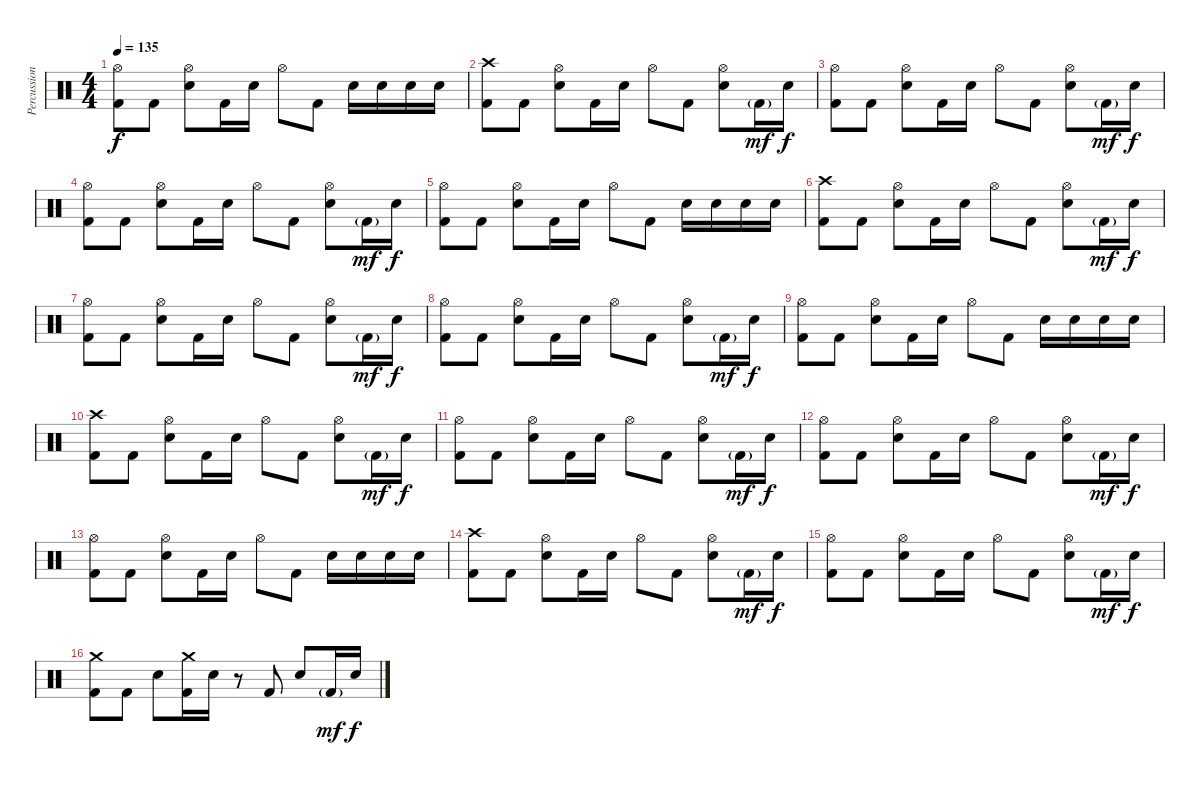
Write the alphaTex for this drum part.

\track ("Percussions" "Percussion") {instrument percussion}
\staff {score}
\articulation defaults
\ts (4 4)
\tempo 135
\clef neutral
\ks c
("Hi-Hat (open)" "Kick (hit) 2").8{dy f} "Kick (hit) 2".8 ("Hi-Hat (open)" "Snare (hit) 2").8 "Kick (hit) 2".16 "Snare (hit) 2".16 "Hi-Hat (open)".8 "Kick (hit) 2".8 "Snare (hit) 2".16 "Snare (hit) 2".16 "Snare (hit) 2".16 "Snare (hit) 2".16 |
("Crash high (hit)" "Kick (hit) 2").8 "Kick (hit) 2".8 ("Hi-Hat (open)" "Snare (hit) 2").8 "Kick (hit) 2".16 "Snare (hit) 2".16 "Hi-Hat (open)".8 "Kick (hit) 2".8 ("Hi-Hat (open)" "Snare (hit) 2").8 "Kick (hit) 2"{g}.16{dy mf} "Snare (hit) 2".16{dy f} |
("Hi-Hat (open)" "Kick (hit) 2").8 "Kick (hit) 2".8 ("Hi-Hat (open)" "Snare (hit) 2").8 "Kick (hit) 2".16 "Snare (hit) 2".16 "Hi-Hat (open)".8 "Kick (hit) 2".8 ("Hi-Hat (open)" "Snare (hit) 2").8 "Kick (hit) 2"{g}.16{dy mf} "Snare (hit) 2".16{dy f} |
("Hi-Hat (open)" "Kick (hit) 2").8 "Kick (hit) 2".8 ("Hi-Hat (open)" "Snare (hit) 2").8 "Kick (hit) 2".16 "Snare (hit) 2".16 "Hi-Hat (open)".8 "Kick (hit) 2".8 ("Hi-Hat (open)" "Snare (hit) 2").8 "Kick (hit) 2"{g}.16{dy mf} "Snare (hit) 2".16{dy f} |
("Hi-Hat (open)" "Kick (hit) 2").8 "Kick (hit) 2".8 ("Hi-Hat (open)" "Snare (hit) 2").8 "Kick (hit) 2".16 "Snare (hit) 2".16 "Hi-Hat (open)".8 "Kick (hit) 2".8 "Snare (hit) 2".16 "Snare (hit) 2".16 "Snare (hit) 2".16 "Snare (hit) 2".16 |
("Crash high (hit)" "Kick (hit) 2").8 "Kick (hit) 2".8 ("Hi-Hat (open)" "Snare (hit) 2").8 "Kick (hit) 2".16 "Snare (hit) 2".16 "Hi-Hat (open)".8 "Kick (hit) 2".8 ("Hi-Hat (open)" "Snare (hit) 2").8 "Kick (hit) 2"{g}.16{dy mf} "Snare (hit) 2".16{dy f} |
("Hi-Hat (open)" "Kick (hit) 2").8 "Kick (hit) 2".8 ("Hi-Hat (open)" "Snare (hit) 2").8 "Kick (hit) 2".16 "Snare (hit) 2".16 "Hi-Hat (open)".8 "Kick (hit) 2".8 ("Hi-Hat (open)" "Snare (hit) 2").8 "Kick (hit) 2"{g}.16{dy mf} "Snare (hit) 2".16{dy f} |
("Hi-Hat (open)" "Kick (hit) 2").8 "Kick (hit) 2".8 ("Hi-Hat (open)" "Snare (hit) 2").8 "Kick (hit) 2".16 "Snare (hit) 2".16 "Hi-Hat (open)".8 "Kick (hit) 2".8 ("Hi-Hat (open)" "Snare (hit) 2").8 "Kick (hit) 2"{g}.16{dy mf} "Snare (hit) 2".16{dy f} |
("Hi-Hat (open)" "Kick (hit) 2").8 "Kick (hit) 2".8 ("Hi-Hat (open)" "Snare (hit) 2").8 "Kick (hit) 2".16 "Snare (hit) 2".16 "Hi-Hat (open)".8 "Kick (hit) 2".8 "Snare (hit) 2".16 "Snare (hit) 2".16 "Snare (hit) 2".16 "Snare (hit) 2".16 |
("Crash high (hit)" "Kick (hit) 2").8 "Kick (hit) 2".8 ("Hi-Hat (open)" "Snare (hit) 2").8 "Kick (hit) 2".16 "Snare (hit) 2".16 "Hi-Hat (open)".8 "Kick (hit) 2".8 ("Hi-Hat (open)" "Snare (hit) 2").8 "Kick (hit) 2"{g}.16{dy mf} "Snare (hit) 2".16{dy f} |
("Hi-Hat (open)" "Kick (hit) 2").8 "Kick (hit) 2".8 ("Hi-Hat (open)" "Snare (hit) 2").8 "Kick (hit) 2".16 "Snare (hit) 2".16 "Hi-Hat (open)".8 "Kick (hit) 2".8 ("Hi-Hat (open)" "Snare (hit) 2").8 "Kick (hit) 2"{g}.16{dy mf} "Snare (hit) 2".16{dy f} |
("Hi-Hat (open)" "Kick (hit) 2").8 "Kick (hit) 2".8 ("Hi-Hat (open)" "Snare (hit) 2").8 "Kick (hit) 2".16 "Snare (hit) 2".16 "Hi-Hat (open)".8 "Kick (hit) 2".8 ("Hi-Hat (open)" "Snare (hit) 2").8 "Kick (hit) 2"{g}.16{dy mf} "Snare (hit) 2".16{dy f} |
("Hi-Hat (open)" "Kick (hit) 2").8 "Kick (hit) 2".8 ("Hi-Hat (open)" "Snare (hit) 2").8 "Kick (hit) 2".16 "Snare (hit) 2".16 "Hi-Hat (open)".8 "Kick (hit) 2".8 "Snare (hit) 2".16 "Snare (hit) 2".16 "Snare (hit) 2".16 "Snare (hit) 2".16 |
("Crash high (hit)" "Kick (hit) 2").8 "Kick (hit) 2".8 ("Hi-Hat (open)" "Snare (hit) 2").8 "Kick (hit) 2".16 "Snare (hit) 2".16 "Hi-Hat (open)".8 "Kick (hit) 2".8 ("Hi-Hat (open)" "Snare (hit) 2").8 "Kick (hit) 2"{g}.16{dy mf} "Snare (hit) 2".16{dy f} |
("Hi-Hat (open)" "Kick (hit) 2").8 "Kick (hit) 2".8 ("Hi-Hat (open)" "Snare (hit) 2").8 "Kick (hit) 2".16 "Snare (hit) 2".16 "Hi-Hat (open)".8 "Kick (hit) 2".8 ("Hi-Hat (open)" "Snare (hit) 2").8 "Kick (hit) 2"{g}.16{dy mf} "Snare (hit) 2".16{dy f} |
("Crash medium (hit)" "Kick (hit) 2").8 "Kick (hit) 2".8 "Snare (hit) 2".8 ("Crash medium (hit)" "Kick (hit) 2").16 "Snare (hit) 2".16 r.8 "Kick (hit) 2".8 "Snare (hit) 2".8 "Kick (hit) 2"{g}.16{dy mf} "Snare (hit) 2".16{dy f}
